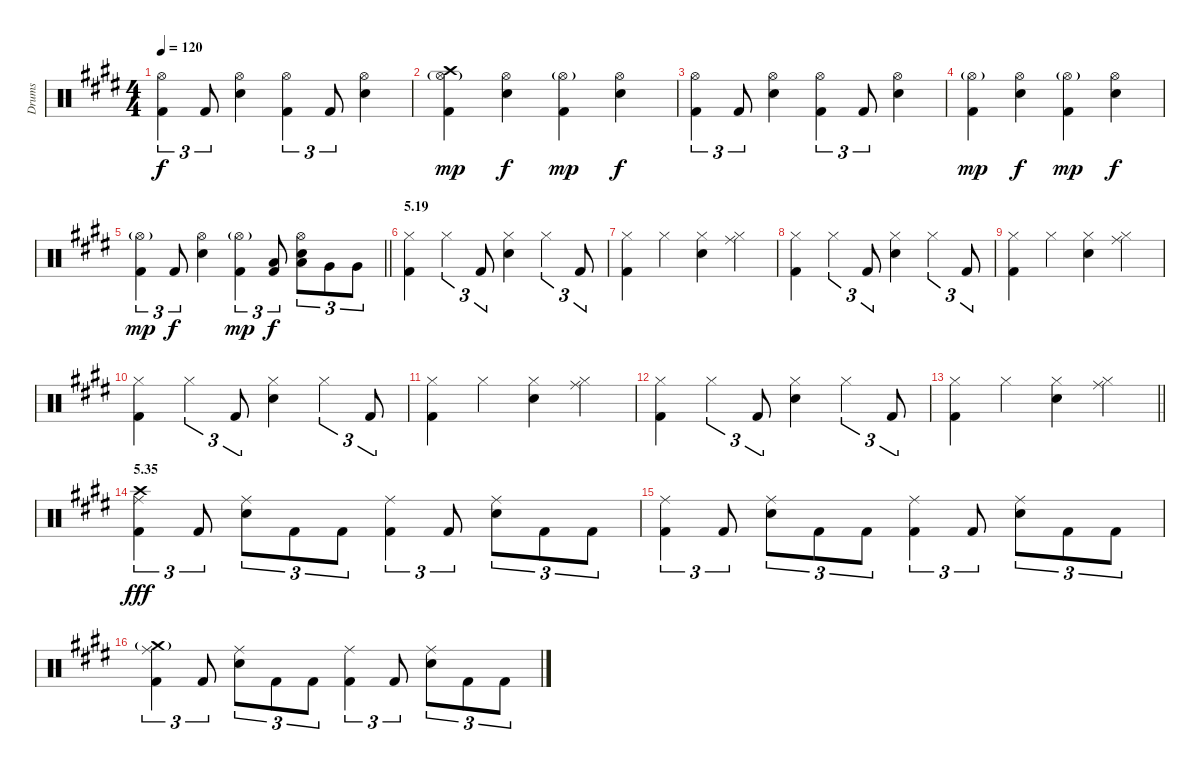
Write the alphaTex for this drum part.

\track ("Drums" "Drums") {instrument percussion}
\staff {score}
\articulation defaults
\ts (4 4)
\tempo 120
\clef neutral
\ks c#minor
("Hi-Hat (open)" "Kick (hit) 2").4{tu (3 2) dy f} "Kick (hit) 2".8{tu (3 2)} ("Hi-Hat (open)" "Electric Snare (hit)").4 ("Hi-Hat (open)" "Kick (hit) 2").4{tu (3 2)} "Kick (hit) 2".8{tu (3 2)} ("Hi-Hat (open)" "Electric Snare (hit)").4 |
("Crash high (hit)" "Hi-Hat (open)"{g} "Kick (hit) 2").4{dy mp} ("Hi-Hat (open)" "Electric Snare (hit)").4{dy f} ("Hi-Hat (open)"{g} "Kick (hit) 2").4{dy mp} ("Hi-Hat (open)" "Electric Snare (hit)").4{dy f} |
("Hi-Hat (open)" "Kick (hit) 2").4{tu (3 2)} "Kick (hit) 2".8{tu (3 2)} ("Hi-Hat (open)" "Electric Snare (hit)").4 ("Hi-Hat (open)" "Kick (hit) 2").4{tu (3 2)} "Kick (hit) 2".8{tu (3 2)} ("Hi-Hat (open)" "Electric Snare (hit)").4 |
("Hi-Hat (open)"{g} "Kick (hit) 2").4{dy mp} ("Hi-Hat (open)" "Electric Snare (hit)").4{dy f} ("Hi-Hat (open)"{g} "Kick (hit) 2").4{dy mp} ("Hi-Hat (open)" "Electric Snare (hit)").4{dy f} |
\barLineRight lightlight
("Hi-Hat (open)"{g} "Kick (hit) 2").4{tu (3 2) dy mp} "Kick (hit) 2".8{tu (3 2) dy f} ("Hi-Hat (open)" "Electric Snare (hit)").4 ("Hi-Hat (open)"{g} "Kick (hit) 2").4{tu (3 2) dy mp} ("Low Tom (hit)" "Kick (hit) 2").8{tu (3 2) dy f} ("Hi-Hat (open)" "Electric Snare (hit)" "Low Tom (hit)").8{tu (3 2)} "Very Low Tom (hit)".8{tu (3 2)} "Very Low Tom (hit)".8{tu (3 2)} |
\section ("" "5.19")
("Hi-Hat (closed)" "Kick (hit) 2").4 "Hi-Hat (closed)".4{tu (3 2)} "Kick (hit) 2".8{tu (3 2)} ("Hi-Hat (closed)" "Electric Snare (hit)").4 "Hi-Hat (closed)".4{tu (3 2)} "Kick (hit) 2".8{tu (3 2)} |
("Hi-Hat (closed)" "Kick (hit) 2").4 "Hi-Hat (closed)".4 ("Hi-Hat (closed)" "Electric Snare (hit)").4 ("Ride (middle)" "Hi-Hat (closed)").4 |
("Hi-Hat (closed)" "Kick (hit) 2").4 "Hi-Hat (closed)".4{tu (3 2)} "Kick (hit) 2".8{tu (3 2)} ("Hi-Hat (closed)" "Electric Snare (hit)").4 "Hi-Hat (closed)".4{tu (3 2)} "Kick (hit) 2".8{tu (3 2)} |
("Hi-Hat (closed)" "Kick (hit) 2").4 "Hi-Hat (closed)".4 ("Hi-Hat (closed)" "Electric Snare (hit)").4 ("Ride (middle)" "Hi-Hat (closed)").4 |
("Hi-Hat (closed)" "Kick (hit) 2").4 "Hi-Hat (closed)".4{tu (3 2)} "Kick (hit) 2".8{tu (3 2)} ("Hi-Hat (closed)" "Electric Snare (hit)").4 "Hi-Hat (closed)".4{tu (3 2)} "Kick (hit) 2".8{tu (3 2)} |
("Hi-Hat (closed)" "Kick (hit) 2").4 "Hi-Hat (closed)".4 ("Hi-Hat (closed)" "Electric Snare (hit)").4 ("Ride (middle)" "Hi-Hat (closed)").4 |
("Hi-Hat (closed)" "Kick (hit) 2").4 "Hi-Hat (closed)".4{tu (3 2)} "Kick (hit) 2".8{tu (3 2)} ("Hi-Hat (closed)" "Electric Snare (hit)").4 "Hi-Hat (closed)".4{tu (3 2)} "Kick (hit) 2".8{tu (3 2)} |
\barLineRight lightlight
("Hi-Hat (closed)" "Kick (hit) 2").4 "Hi-Hat (closed)".4 ("Hi-Hat (closed)" "Electric Snare (hit)").4 ("Ride (middle)" "Hi-Hat (closed)").4 |
\section ("" "5.35")
("Crash high (hit)" "Ride (middle)" "Kick (hit) 2").4{tu (3 2) dy fff} "Kick (hit) 2".8{tu (3 2)} ("Ride (middle)" "Electric Snare (hit)").8{tu (3 2)} "Kick (hit) 2".8{tu (3 2)} "Kick (hit) 2".8{tu (3 2)} ("Ride (middle)" "Kick (hit) 2").4{tu (3 2)} "Kick (hit) 2".8{tu (3 2)} ("Ride (middle)" "Electric Snare (hit)").8{tu (3 2)} "Kick (hit) 2".8{tu (3 2)} "Kick (hit) 2".8{tu (3 2)} |
("Ride (middle)" "Kick (hit) 2").4{tu (3 2)} "Kick (hit) 2".8{tu (3 2)} ("Ride (middle)" "Electric Snare (hit)").8{tu (3 2)} "Kick (hit) 2".8{tu (3 2)} "Kick (hit) 2".8{tu (3 2)} ("Ride (middle)" "Kick (hit) 2").4{tu (3 2)} "Kick (hit) 2".8{tu (3 2)} ("Ride (middle)" "Electric Snare (hit)").8{tu (3 2)} "Kick (hit) 2".8{tu (3 2)} "Kick (hit) 2".8{tu (3 2)} |
("Crash medium (hit)"{g} "Ride (middle)" "Kick (hit) 2").4{tu (3 2)} "Kick (hit) 2".8{tu (3 2)} ("Ride (middle)" "Electric Snare (hit)").8{tu (3 2)} "Kick (hit) 2".8{tu (3 2)} "Kick (hit) 2".8{tu (3 2)} ("Ride (middle)" "Kick (hit) 2").4{tu (3 2)} "Kick (hit) 2".8{tu (3 2)} ("Ride (middle)" "Electric Snare (hit)").8{tu (3 2)} "Kick (hit) 2".8{tu (3 2)} "Kick (hit) 2".8{tu (3 2)}
